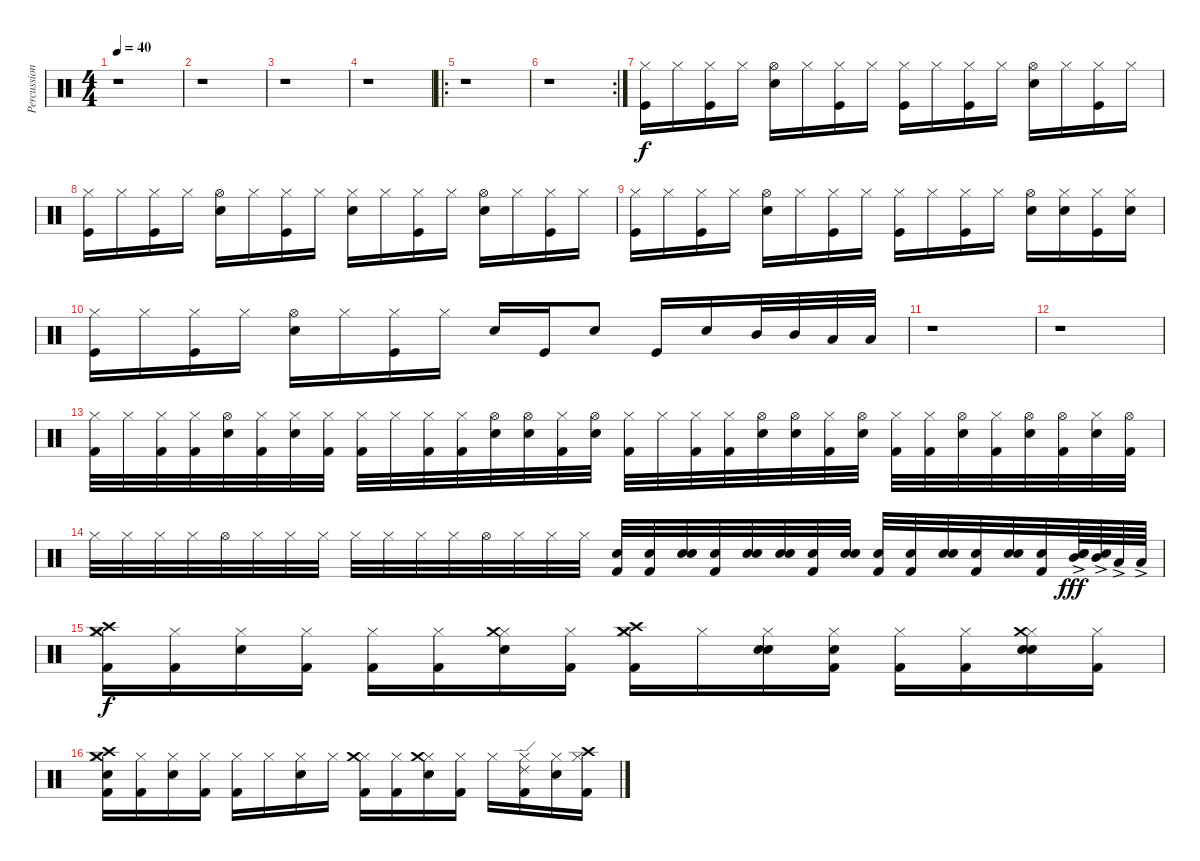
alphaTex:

\track ("Percussion" "Percussion") {instrument percussion}
\staff {score}
\articulation defaults
\ts (4 4)
\tempo 40
\clef neutral
\ks c
r.1{dy f} |
r.1 |
r.1 |
r.1 |
\ro
r.1 |
\rc 2
r.1 |
("Hi-Hat (closed)" "Kick (hit)").16 "Hi-Hat (closed)".16 ("Hi-Hat (closed)" "Kick (hit)").16 "Hi-Hat (closed)".16 ("Hi-Hat (open)" "Electric Snare (hit)").16 "Hi-Hat (closed)".16 ("Hi-Hat (closed)" "Kick (hit)").16 "Hi-Hat (closed)".16 ("Hi-Hat (closed)" "Kick (hit)").16 "Hi-Hat (closed)".16 ("Hi-Hat (closed)" "Kick (hit)").16 "Hi-Hat (closed)".16 ("Hi-Hat (open)" "Electric Snare (hit)").16 "Hi-Hat (closed)".16 ("Hi-Hat (closed)" "Kick (hit)").16 "Hi-Hat (closed)".16 |
("Hi-Hat (closed)" "Kick (hit)").16 "Hi-Hat (closed)".16 ("Hi-Hat (closed)" "Kick (hit)").16 "Hi-Hat (closed)".16 ("Hi-Hat (open)" "Electric Snare (hit)").16 "Hi-Hat (closed)".16 ("Hi-Hat (closed)" "Kick (hit)").16 "Hi-Hat (closed)".16 ("Hi-Hat (closed)" "Snare (hit)").16 "Hi-Hat (closed)".16 ("Hi-Hat (closed)" "Kick (hit)").16 "Hi-Hat (closed)".16 ("Hi-Hat (open)" "Electric Snare (hit)").16 "Hi-Hat (closed)".16 ("Hi-Hat (closed)" "Kick (hit)").16 "Hi-Hat (closed)".16 |
("Hi-Hat (closed)" "Kick (hit)").16 "Hi-Hat (closed)".16 ("Hi-Hat (closed)" "Kick (hit)").16 "Hi-Hat (closed)".16 ("Hi-Hat (open)" "Electric Snare (hit)").16 "Hi-Hat (closed)".16 ("Hi-Hat (closed)" "Kick (hit)").16 "Hi-Hat (closed)".16 ("Hi-Hat (closed)" "Kick (hit)").16 "Hi-Hat (closed)".16 ("Hi-Hat (closed)" "Kick (hit)").16 "Hi-Hat (closed)".16 ("Hi-Hat (open)" "Electric Snare (hit)").16 ("Hi-Hat (closed)" "Electric Snare (hit)").16 ("Hi-Hat (closed)" "Kick (hit)").16 ("Hi-Hat (closed)" "Electric Snare (hit)").16 |
("Hi-Hat (closed)" "Kick (hit)").16 "Hi-Hat (closed)".16 ("Hi-Hat (closed)" "Kick (hit)").16 "Hi-Hat (closed)".16 ("Hi-Hat (open)" "Electric Snare (hit)").16 "Hi-Hat (closed)".16 ("Hi-Hat (closed)" "Kick (hit)").16 "Hi-Hat (closed)".16 "Electric Snare (hit)".16 "Kick (hit)".16 "Electric Snare (hit)".8 "Kick (hit)".16 "Electric Snare (hit)".16 "Mid Tom (hit)".32 "Mid Tom (hit)".32 "Low Tom (hit)".32 "Low Tom (hit)".32 |
r.1 |
r.1 |
("Hi-Hat (closed)" "Kick (hit) 2").32 "Hi-Hat (closed)".32 ("Hi-Hat (closed)" "Kick (hit) 2").32 ("Hi-Hat (closed)" "Kick (hit) 2").32 ("Hi-Hat (open)" "Snare (hit) 2").32 ("Hi-Hat (closed)" "Kick (hit) 2").32 ("Hi-Hat (closed)" "Snare (hit)").32 ("Hi-Hat (closed)" "Kick (hit) 2").32 ("Hi-Hat (closed)" "Kick (hit) 2").32 "Hi-Hat (closed)".32 ("Hi-Hat (closed)" "Kick (hit) 2").32 ("Hi-Hat (closed)" "Kick (hit) 2").32 ("Hi-Hat (open)" "Snare (hit) 2").32 ("Hi-Hat (open)" "Snare (hit) 2").32 ("Hi-Hat (closed)" "Kick (hit) 2").32 ("Hi-Hat (open)" "Snare (hit) 2").32 ("Hi-Hat (closed)" "Kick (hit) 2").32 "Hi-Hat (closed)".32 ("Hi-Hat (closed)" "Kick (hit) 2").32 ("Hi-Hat (closed)" "Kick (hit) 2").32 ("Hi-Hat (open)" "Snare (hit) 2").32 ("Hi-Hat (open)" "Snare (hit) 2").32 ("Hi-Hat (closed)" "Kick (hit) 2").32 ("Hi-Hat (open)" "Snare (hit) 2").32 ("Hi-Hat (closed)" "Kick (hit) 2").32 ("Hi-Hat (closed)" "Kick (hit) 2").32 ("Hi-Hat (open)" "Snare (hit) 2").32 ("Hi-Hat (closed)" "Kick (hit) 2").32 ("Hi-Hat (open)" "Snare (hit) 2").32 ("Hi-Hat (open)" "Kick (hit) 2").32 ("Hi-Hat (closed)" "Snare (hit) 2").32 ("Hi-Hat (open)" "Kick (hit) 2").32 |
"Hi-Hat (closed)".32 "Hi-Hat (closed)".32 "Hi-Hat (closed)".32 "Hi-Hat (closed)".32 "Hi-Hat (open)".32 "Hi-Hat (closed)".32 "Hi-Hat (closed)".32 "Hi-Hat (closed)".32 "Hi-Hat (closed)".32 "Hi-Hat (closed)".32 "Hi-Hat (closed)".32 "Hi-Hat (closed)".32 "Hi-Hat (open)".32 "Hi-Hat (closed)".32 "Hi-Hat (closed)".32 "Hi-Hat (closed)".32 ("Snare (hit)" "Kick (hit) 2").32 ("Snare (hit)" "Kick (hit) 2").32 ("Snare (hit)" "Snare (hit) 2").32 ("Snare (hit)" "Kick (hit) 2").32 ("Snare (hit)" "Snare (hit) 2").32 ("Snare (hit)" "Snare (hit) 2").32 ("Snare (hit)" "Kick (hit) 2").32 ("Snare (hit)" "Snare (hit) 2").32 ("Snare (hit)" "Kick (hit) 2").32 ("Snare (hit)" "Kick (hit) 2").32 ("Snare (hit)" "Snare (hit) 2").32 ("Snare (hit)" "Kick (hit) 2").32 ("Snare (hit)" "Snare (hit) 2").32 ("Snare (hit)" "Kick (hit) 2").32 ("Snare (hit)" "Snare (hit)" "Mid Tom (hit)"{ac}).64{dy fff} ("Snare (hit)" "Mid Tom (hit)"{ac}).64 "Low Tom (hit)"{ac}.64 "Low Tom (hit)"{ac}.64 |
("Hi-Hat (closed)" "Crash medium (hit)" "Crash high (hit)" "Kick (hit) 2").16{dy f} ("Hi-Hat (closed)" "Kick (hit) 2").16 ("Hi-Hat (closed)" "Snare (hit) 2").16 ("Hi-Hat (closed)" "Kick (hit) 2").16 ("Hi-Hat (closed)" "Kick (hit) 2").16 ("Hi-Hat (closed)" "Kick (hit) 2").16 ("Hi-Hat (closed)" "Crash medium (hit)" "Snare (hit) 2").16 ("Hi-Hat (closed)" "Kick (hit) 2").16 ("Hi-Hat (closed)" "Crash medium (hit)" "Crash high (hit)" "Kick (hit) 2").16 "Hi-Hat (closed)".16 ("Hi-Hat (closed)" "Snare (hit) 2" "Snare (hit)").16 ("Hi-Hat (closed)" "Snare (hit)" "Kick (hit) 2").16 ("Hi-Hat (closed)" "Kick (hit) 2").16 ("Hi-Hat (closed)" "Kick (hit) 2").16 ("Hi-Hat (closed)" "Crash medium (hit)" "Snare (hit) 2" "Snare (hit)").16 ("Hi-Hat (closed)" "Kick (hit) 2").16 |
("Hi-Hat (closed)" "Crash medium (hit)" "Crash high (hit)" "Snare (hit)" "Kick (hit) 2").16 ("Hi-Hat (closed)" "Kick (hit) 2").16 ("Hi-Hat (closed)" "Snare (hit) 2").16 ("Hi-Hat (closed)" "Kick (hit) 2").16 ("Hi-Hat (closed)" "Kick (hit) 2").16 "Hi-Hat (closed)".16 ("Hi-Hat (closed)" "Snare (hit) 2").16 "Hi-Hat (closed)".16 ("Hi-Hat (closed)" "Crash medium (hit)" "Kick (hit) 2").16 ("Hi-Hat (closed)" "Kick (hit) 2").16 ("Hi-Hat (closed)" "Crash medium (hit)" "Snare (hit) 2").16 ("Hi-Hat (closed)" "Kick (hit) 2").16 "Hi-Hat (closed)".16 ("Hi-Hat (closed)" "Ride (edge) 2" "Kick (hit) 2").16 ("Hi-Hat (closed)" "Snare (hit) 2").16 ("Hi-Hat (closed)" "Crash high (hit)" "Kick (hit) 2").16
